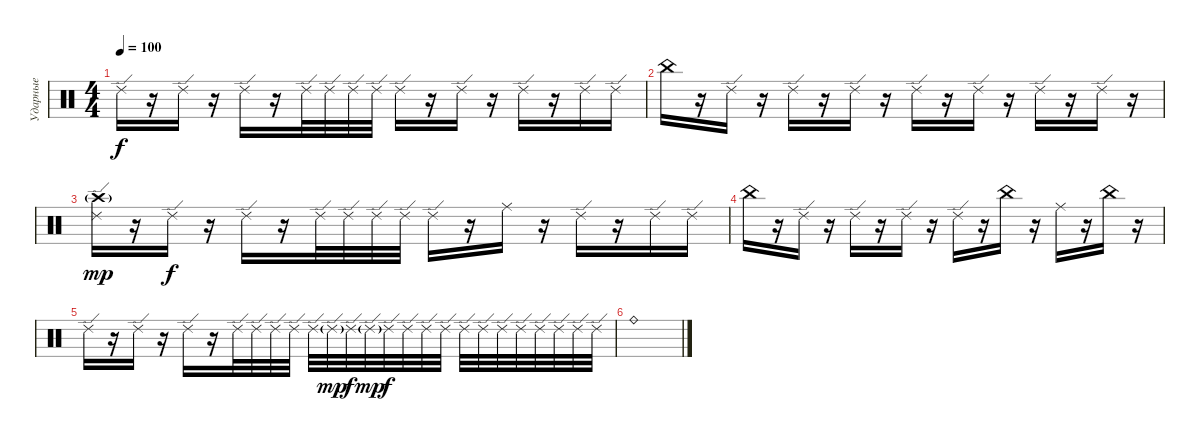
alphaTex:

\track ("Ударные" "Ударные") {instrument percussion}
\staff {score}
\articulation defaults
\ts (4 4)
\tempo 100
\clef neutral
\ks c "Ride (edge) 2".16{dy f}
r.16 "Ride (edge) 2".16 r.16 "Ride (edge) 2".16 r.16 "Ride (edge) 2".32 "Ride (edge) 2".32 "Ride (edge) 2".32 "Ride (edge) 2".32 "Ride (edge) 2".16 r.16 "Ride (edge) 2".16 r.16 "Ride (edge) 2".16 r.16 "Ride (edge) 2".16 "Ride (edge) 2".16 |
"China (hit)".16 r.16 "Ride (edge) 2".16 r.16 "Ride (edge) 2".16 r.16 "Ride (edge) 2".16 r.16 "Ride (edge) 2".16 r.16 "Ride (edge) 2".16 r.16 "Ride (edge) 2".16 r.16 "Ride (edge) 2".16 r.16 |
("Ride (edge) 2" "Crash high (hit)"{g}).16{dy mp} r.16 "Ride (edge) 2".16{dy f} r.16 "Ride (edge) 2".16 r.16 "Ride (edge) 2".32 "Ride (edge) 2".32 "Ride (edge) 2".32 "Ride (edge) 2".32 "Ride (edge) 2".16 r.16 "Ride (middle)".16 r.16 "Ride (edge) 2".16 r.16 "Ride (edge) 2".16 "Ride (edge) 2".16 |
"China (hit)".16 r.16 "Ride (edge) 2".16 r.16 "Ride (edge) 2".16 r.16 "Ride (edge) 2".16 r.16 "Ride (edge) 2".16 r.16 "China (hit)".16 r.16 "Ride (middle)".16 r.16 "China (hit)".16 r.16 |
"Ride (edge) 2".16 r.16 "Ride (edge) 2".16 r.16 "Ride (edge) 2".16 r.16 "Ride (edge) 2".32 "Ride (edge) 2".32 "Ride (edge) 2".32 "Ride (edge) 2".32 "Ride (edge) 2".32 "Ride (edge) 2"{g}.32{dy mp} "Ride (edge) 2".32{dy f} "Ride (edge) 2"{g}.32{dy mp} "Ride (edge) 2".32{dy f} "Ride (edge) 2".32 "Ride (edge) 2".32 "Ride (edge) 2".32 "Ride (edge) 2".32 "Ride (edge) 2".32 "Ride (edge) 2".32 "Ride (edge) 2".32 "Ride (edge) 2".32 "Ride (edge) 2".32 "Ride (edge) 2".32 "Ride (edge) 2".32 |
"Ride (bell)".1
